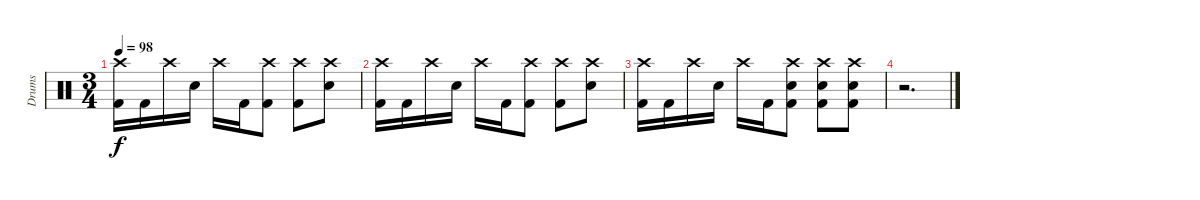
\track ("Drums" "Drums") {instrument percussion}
\staff {score}
\articulation defaults
\ts (3 4)
\tempo 98
\clef neutral
\ks c
("Crash high (hit)" "Kick (hit) 2").16{dy f} "Kick (hit) 2".16 "Crash high (hit)".16 "Electric Snare (hit)".16 "Crash high (hit)".16 "Kick (hit) 2".16 ("Crash high (hit)" "Kick (hit) 2").8 ("Crash high (hit)" "Kick (hit) 2").8 ("Crash high (hit)" "Electric Snare (hit)").8 |
("Crash high (hit)" "Kick (hit) 2").16 "Kick (hit) 2".16 "Crash high (hit)".16 "Electric Snare (hit)".16 "Crash high (hit)".16 "Kick (hit) 2".16 ("Crash high (hit)" "Kick (hit) 2").8 ("Crash high (hit)" "Kick (hit) 2").8 ("Crash high (hit)" "Electric Snare (hit)").8 |
("Crash high (hit)" "Kick (hit) 2").16 "Kick (hit) 2".16 "Crash high (hit)".16 "Electric Snare (hit)".16 "Crash high (hit)".16 "Kick (hit) 2".16 ("Crash high (hit)" "Electric Snare (hit)" "Kick (hit) 2").8 ("Crash high (hit)" "Electric Snare (hit)" "Kick (hit) 2").8 ("Crash high (hit)" "Electric Snare (hit)" "Kick (hit) 2").8 |
r.2{d}
